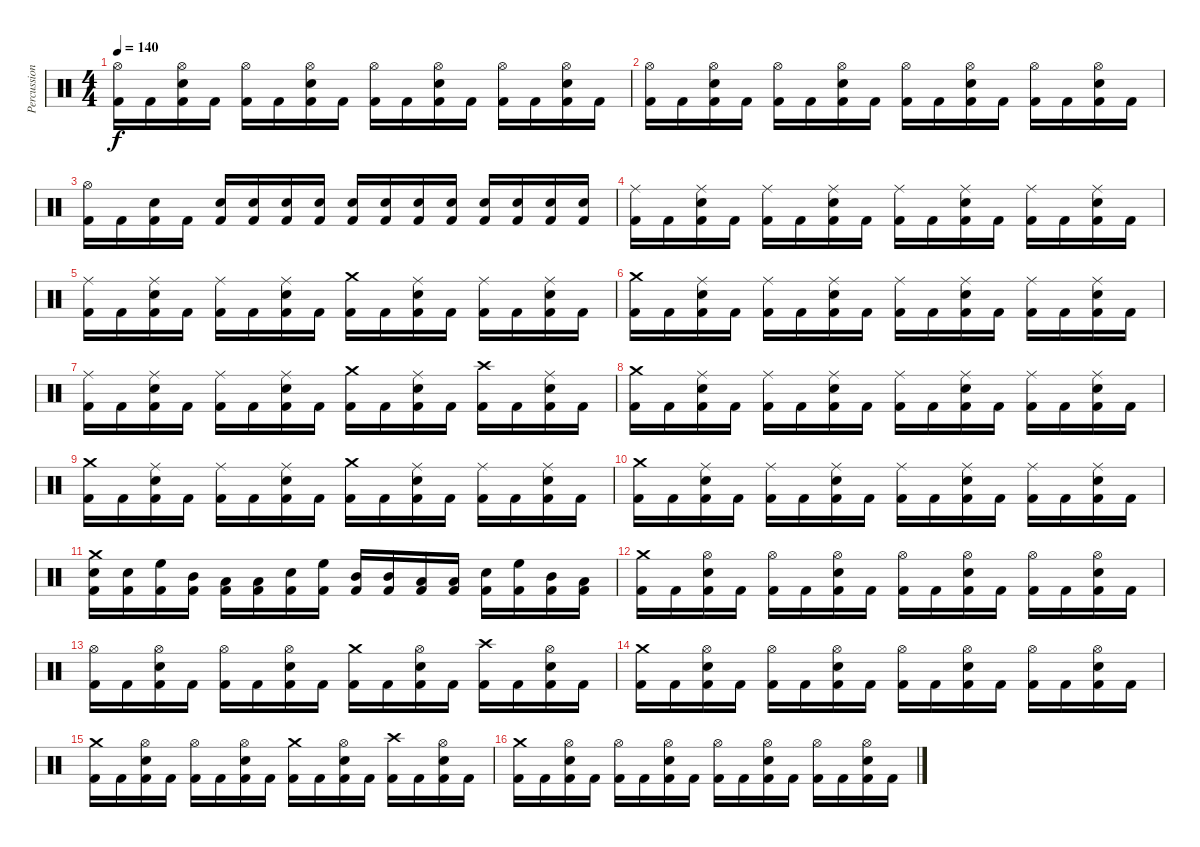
\track ("Percussion" "Percussion") {instrument percussion}
\staff {score}
\articulation defaults
\ts (4 4)
\tempo 140
\clef neutral
\ks c
("Kick (hit) 2" "Hi-Hat (open)").16{dy f} "Kick (hit) 2".16 ("Kick (hit) 2" "Electric Snare (hit)" "Hi-Hat (open)").16 "Kick (hit) 2".16 ("Kick (hit) 2" "Hi-Hat (open)").16 "Kick (hit) 2".16 ("Kick (hit) 2" "Electric Snare (hit)" "Hi-Hat (open)").16 "Kick (hit) 2".16 ("Kick (hit) 2" "Hi-Hat (open)").16 "Kick (hit) 2".16 ("Kick (hit) 2" "Electric Snare (hit)" "Hi-Hat (open)").16 "Kick (hit) 2".16 ("Kick (hit) 2" "Hi-Hat (open)").16 "Kick (hit) 2".16 ("Kick (hit) 2" "Electric Snare (hit)" "Hi-Hat (open)").16 "Kick (hit) 2".16 |
("Kick (hit) 2" "Hi-Hat (open)").16 "Kick (hit) 2".16 ("Kick (hit) 2" "Electric Snare (hit)" "Hi-Hat (open)").16 "Kick (hit) 2".16 ("Kick (hit) 2" "Hi-Hat (open)").16 "Kick (hit) 2".16 ("Kick (hit) 2" "Electric Snare (hit)" "Hi-Hat (open)").16 "Kick (hit) 2".16 ("Kick (hit) 2" "Hi-Hat (open)").16 "Kick (hit) 2".16 ("Kick (hit) 2" "Electric Snare (hit)" "Hi-Hat (open)").16 "Kick (hit) 2".16 ("Kick (hit) 2" "Hi-Hat (open)").16 "Kick (hit) 2".16 ("Kick (hit) 2" "Electric Snare (hit)" "Hi-Hat (open)").16 "Kick (hit) 2".16 |
("Kick (hit) 2" "Hi-Hat (open)").16 "Kick (hit) 2".16 ("Kick (hit) 2" "Electric Snare (hit)").16 "Kick (hit) 2".16 ("Kick (hit) 2" "Electric Snare (hit)").16 ("Kick (hit) 2" "Electric Snare (hit)").16 ("Kick (hit) 2" "Electric Snare (hit)").16 ("Kick (hit) 2" "Electric Snare (hit)").16 ("Kick (hit) 2" "Electric Snare (hit)").16 ("Kick (hit) 2" "Electric Snare (hit)").16 ("Kick (hit) 2" "Electric Snare (hit)").16 ("Kick (hit) 2" "Electric Snare (hit)").16 ("Kick (hit) 2" "Electric Snare (hit)").16 ("Kick (hit) 2" "Electric Snare (hit)").16 ("Kick (hit) 2" "Electric Snare (hit)").16 ("Kick (hit) 2" "Electric Snare (hit)").16 |
("Kick (hit) 2" "Ride (middle)").16 "Kick (hit) 2".16 ("Kick (hit) 2" "Electric Snare (hit)" "Ride (middle)").16 "Kick (hit) 2".16 ("Kick (hit) 2" "Ride (middle)").16 "Kick (hit) 2".16 ("Kick (hit) 2" "Electric Snare (hit)" "Ride (middle)").16 "Kick (hit) 2".16 ("Kick (hit) 2" "Ride (middle)").16 "Kick (hit) 2".16 ("Kick (hit) 2" "Electric Snare (hit)" "Ride (middle)").16 "Kick (hit) 2".16 ("Kick (hit) 2" "Ride (middle)").16 "Kick (hit) 2".16 ("Kick (hit) 2" "Electric Snare (hit)" "Ride (middle)").16 "Kick (hit) 2".16 |
("Kick (hit) 2" "Ride (middle)").16 "Kick (hit) 2".16 ("Kick (hit) 2" "Electric Snare (hit)" "Ride (middle)").16 "Kick (hit) 2".16 ("Kick (hit) 2" "Ride (middle)").16 "Kick (hit) 2".16 ("Kick (hit) 2" "Electric Snare (hit)" "Ride (middle)").16 "Kick (hit) 2".16 ("Kick (hit) 2" "Crash medium (hit)").16 "Kick (hit) 2".16 ("Kick (hit) 2" "Electric Snare (hit)" "Ride (middle)").16 "Kick (hit) 2".16 ("Kick (hit) 2" "Ride (middle)").16 "Kick (hit) 2".16 ("Kick (hit) 2" "Electric Snare (hit)" "Ride (middle)").16 "Kick (hit) 2".16 |
("Kick (hit) 2" "Crash medium (hit)").16 "Kick (hit) 2".16 ("Kick (hit) 2" "Electric Snare (hit)" "Ride (middle)").16 "Kick (hit) 2".16 ("Kick (hit) 2" "Ride (middle)").16 "Kick (hit) 2".16 ("Kick (hit) 2" "Electric Snare (hit)" "Ride (middle)").16 "Kick (hit) 2".16 ("Kick (hit) 2" "Ride (middle)").16 "Kick (hit) 2".16 ("Kick (hit) 2" "Electric Snare (hit)" "Ride (middle)").16 "Kick (hit) 2".16 ("Kick (hit) 2" "Ride (middle)").16 "Kick (hit) 2".16 ("Kick (hit) 2" "Electric Snare (hit)" "Ride (middle)").16 "Kick (hit) 2".16 |
("Kick (hit) 2" "Ride (middle)").16 "Kick (hit) 2".16 ("Kick (hit) 2" "Electric Snare (hit)" "Ride (middle)").16 "Kick (hit) 2".16 ("Kick (hit) 2" "Ride (middle)").16 "Kick (hit) 2".16 ("Kick (hit) 2" "Electric Snare (hit)" "Ride (middle)").16 "Kick (hit) 2".16 ("Kick (hit) 2" "Crash medium (hit)").16 "Kick (hit) 2".16 ("Kick (hit) 2" "Electric Snare (hit)" "Ride (middle)").16 "Kick (hit) 2".16 ("Kick (hit) 2" "Crash high (hit)").16 "Kick (hit) 2".16 ("Kick (hit) 2" "Electric Snare (hit)" "Ride (middle)").16 "Kick (hit) 2".16 |
("Kick (hit) 2" "Crash medium (hit)").16 "Kick (hit) 2".16 ("Kick (hit) 2" "Electric Snare (hit)" "Ride (middle)").16 "Kick (hit) 2".16 ("Kick (hit) 2" "Ride (middle)").16 "Kick (hit) 2".16 ("Kick (hit) 2" "Electric Snare (hit)" "Ride (middle)").16 "Kick (hit) 2".16 ("Kick (hit) 2" "Ride (middle)").16 "Kick (hit) 2".16 ("Kick (hit) 2" "Electric Snare (hit)" "Ride (middle)").16 "Kick (hit) 2".16 ("Kick (hit) 2" "Ride (middle)").16 "Kick (hit) 2".16 ("Kick (hit) 2" "Electric Snare (hit)" "Ride (middle)").16 "Kick (hit) 2".16 |
("Kick (hit) 2" "Crash medium (hit)").16 "Kick (hit) 2".16 ("Kick (hit) 2" "Electric Snare (hit)" "Ride (middle)").16 "Kick (hit) 2".16 ("Kick (hit) 2" "Ride (middle)").16 "Kick (hit) 2".16 ("Kick (hit) 2" "Electric Snare (hit)" "Ride (middle)").16 "Kick (hit) 2".16 ("Kick (hit) 2" "Crash medium (hit)").16 "Kick (hit) 2".16 ("Kick (hit) 2" "Electric Snare (hit)" "Ride (middle)").16 "Kick (hit) 2".16 ("Kick (hit) 2" "Ride (middle)").16 "Kick (hit) 2".16 ("Kick (hit) 2" "Electric Snare (hit)" "Ride (middle)").16 "Kick (hit) 2".16 |
("Kick (hit) 2" "Crash medium (hit)").16 "Kick (hit) 2".16 ("Kick (hit) 2" "Electric Snare (hit)" "Ride (middle)").16 "Kick (hit) 2".16 ("Kick (hit) 2" "Ride (middle)").16 "Kick (hit) 2".16 ("Kick (hit) 2" "Electric Snare (hit)" "Ride (middle)").16 "Kick (hit) 2".16 ("Kick (hit) 2" "Ride (middle)").16 "Kick (hit) 2".16 ("Kick (hit) 2" "Electric Snare (hit)" "Ride (middle)").16 "Kick (hit) 2".16 ("Kick (hit) 2" "Ride (middle)").16 "Kick (hit) 2".16 ("Kick (hit) 2" "Electric Snare (hit)" "Ride (middle)").16 "Kick (hit) 2".16 |
("Kick (hit) 2" "Electric Snare (hit)" "Crash medium (hit)").16 ("Kick (hit) 2" "Electric Snare (hit)").16 ("Kick (hit) 2" "High Floor Tom (hit)").16 ("Kick (hit) 2" "Mid Tom (hit)").16 ("Kick (hit) 2" "Low Floor Tom (hit)").16 ("Kick (hit) 2" "Low Floor Tom (hit)").16 ("Kick (hit) 2" "Electric Snare (hit)").16 ("Kick (hit) 2" "High Floor Tom (hit)").16 ("Kick (hit) 2" "Mid Tom (hit)").16 ("Kick (hit) 2" "Mid Tom (hit)").16 ("Kick (hit) 2" "Low Floor Tom (hit)").16 ("Kick (hit) 2" "Low Floor Tom (hit)").16 ("Kick (hit) 2" "Electric Snare (hit)").16 ("Kick (hit) 2" "High Floor Tom (hit)").16 ("Kick (hit) 2" "Mid Tom (hit)").16 ("Kick (hit) 2" "Low Floor Tom (hit)").16 |
("Kick (hit) 2" "Crash medium (hit)").16 "Kick (hit) 2".16 ("Kick (hit) 2" "Electric Snare (hit)" "Hi-Hat (open)").16 "Kick (hit) 2".16 ("Kick (hit) 2" "Hi-Hat (open)").16 "Kick (hit) 2".16 ("Kick (hit) 2" "Electric Snare (hit)" "Hi-Hat (open)").16 "Kick (hit) 2".16 ("Kick (hit) 2" "Hi-Hat (open)").16 "Kick (hit) 2".16 ("Kick (hit) 2" "Electric Snare (hit)" "Hi-Hat (open)").16 "Kick (hit) 2".16 ("Kick (hit) 2" "Hi-Hat (open)").16 "Kick (hit) 2".16 ("Kick (hit) 2" "Electric Snare (hit)" "Hi-Hat (open)").16 "Kick (hit) 2".16 |
("Kick (hit) 2" "Hi-Hat (open)").16 "Kick (hit) 2".16 ("Kick (hit) 2" "Electric Snare (hit)" "Hi-Hat (open)").16 "Kick (hit) 2".16 ("Kick (hit) 2" "Hi-Hat (open)").16 "Kick (hit) 2".16 ("Kick (hit) 2" "Electric Snare (hit)" "Hi-Hat (open)").16 "Kick (hit) 2".16 ("Kick (hit) 2" "Crash medium (hit)").16 "Kick (hit) 2".16 ("Kick (hit) 2" "Electric Snare (hit)" "Hi-Hat (open)").16 "Kick (hit) 2".16 ("Kick (hit) 2" "Crash high (hit)").16 "Kick (hit) 2".16 ("Kick (hit) 2" "Electric Snare (hit)" "Hi-Hat (open)").16 "Kick (hit) 2".16 |
("Kick (hit) 2" "Crash medium (hit)").16 "Kick (hit) 2".16 ("Kick (hit) 2" "Electric Snare (hit)" "Hi-Hat (open)").16 "Kick (hit) 2".16 ("Kick (hit) 2" "Hi-Hat (open)").16 "Kick (hit) 2".16 ("Kick (hit) 2" "Electric Snare (hit)" "Hi-Hat (open)").16 "Kick (hit) 2".16 ("Kick (hit) 2" "Hi-Hat (open)").16 "Kick (hit) 2".16 ("Kick (hit) 2" "Electric Snare (hit)" "Hi-Hat (open)").16 "Kick (hit) 2".16 ("Kick (hit) 2" "Hi-Hat (open)").16 "Kick (hit) 2".16 ("Kick (hit) 2" "Electric Snare (hit)" "Hi-Hat (open)").16 "Kick (hit) 2".16 |
("Kick (hit) 2" "Crash medium (hit)").16 "Kick (hit) 2".16 ("Kick (hit) 2" "Electric Snare (hit)" "Hi-Hat (open)").16 "Kick (hit) 2".16 ("Kick (hit) 2" "Hi-Hat (open)").16 "Kick (hit) 2".16 ("Kick (hit) 2" "Electric Snare (hit)" "Hi-Hat (open)").16 "Kick (hit) 2".16 ("Kick (hit) 2" "Crash medium (hit)").16 "Kick (hit) 2".16 ("Kick (hit) 2" "Electric Snare (hit)" "Hi-Hat (open)").16 "Kick (hit) 2".16 ("Kick (hit) 2" "Crash high (hit)").16 "Kick (hit) 2".16 ("Kick (hit) 2" "Electric Snare (hit)" "Hi-Hat (open)").16 "Kick (hit) 2".16 |
("Kick (hit) 2" "Crash medium (hit)").16 "Kick (hit) 2".16 ("Kick (hit) 2" "Electric Snare (hit)" "Hi-Hat (open)").16 "Kick (hit) 2".16 ("Kick (hit) 2" "Hi-Hat (open)").16 "Kick (hit) 2".16 ("Kick (hit) 2" "Electric Snare (hit)" "Hi-Hat (open)").16 "Kick (hit) 2".16 ("Kick (hit) 2" "Hi-Hat (open)").16 "Kick (hit) 2".16 ("Kick (hit) 2" "Electric Snare (hit)" "Hi-Hat (open)").16 "Kick (hit) 2".16 ("Kick (hit) 2" "Hi-Hat (open)").16 "Kick (hit) 2".16 ("Kick (hit) 2" "Electric Snare (hit)" "Hi-Hat (open)").16 "Kick (hit) 2".16
